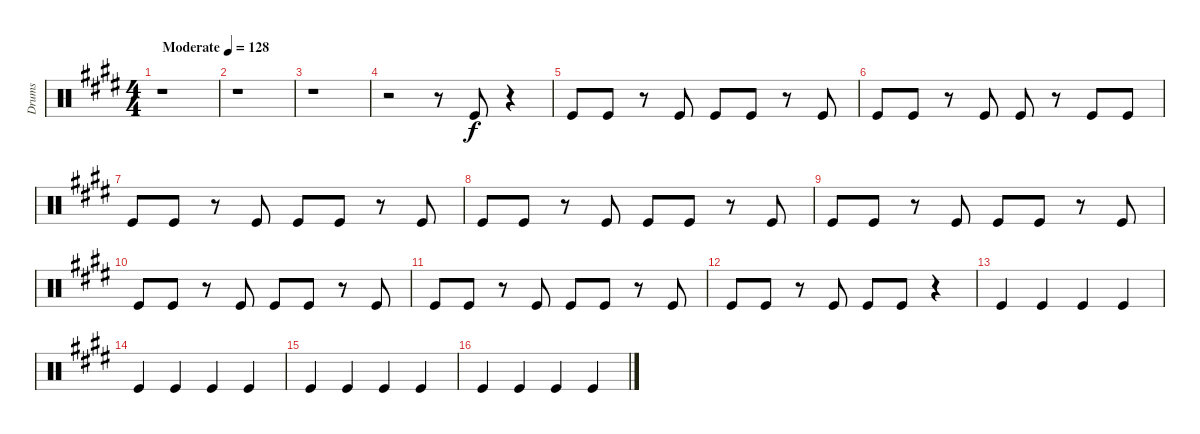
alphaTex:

\track ("Drums" "Drums") {instrument percussion}
\staff {score}
\articulation defaults
\ts (4 4)
\tempo (128 "Moderate")
\clef neutral
\ks e
r.1{dy f} |
r.1 |
r.1 |
r.2 r.8 "Kick (hit)".8 r.4 |
"Kick (hit)".8 "Kick (hit)".8 r.8 "Kick (hit)".8 "Kick (hit)".8 "Kick (hit)".8 r.8 "Kick (hit)".8 |
"Kick (hit)".8 "Kick (hit)".8 r.8 "Kick (hit)".8 "Kick (hit)".8 r.8 "Kick (hit)".8 "Kick (hit)".8 |
"Kick (hit)".8 "Kick (hit)".8 r.8 "Kick (hit)".8 "Kick (hit)".8 "Kick (hit)".8 r.8 "Kick (hit)".8 |
"Kick (hit)".8 "Kick (hit)".8 r.8 "Kick (hit)".8 "Kick (hit)".8 "Kick (hit)".8 r.8 "Kick (hit)".8 |
"Kick (hit)".8 "Kick (hit)".8 r.8 "Kick (hit)".8 "Kick (hit)".8 "Kick (hit)".8 r.8 "Kick (hit)".8 |
"Kick (hit)".8 "Kick (hit)".8 r.8 "Kick (hit)".8 "Kick (hit)".8 "Kick (hit)".8 r.8 "Kick (hit)".8 |
"Kick (hit)".8 "Kick (hit)".8 r.8 "Kick (hit)".8 "Kick (hit)".8 "Kick (hit)".8 r.8 "Kick (hit)".8 |
"Kick (hit)".8 "Kick (hit)".8 r.8 "Kick (hit)".8 "Kick (hit)".8 "Kick (hit)".8 r.4 |
"Kick (hit)".4 "Kick (hit)".4 "Kick (hit)".4 "Kick (hit)".4 |
"Kick (hit)".4 "Kick (hit)".4 "Kick (hit)".4 "Kick (hit)".4 |
"Kick (hit)".4 "Kick (hit)".4 "Kick (hit)".4 "Kick (hit)".4 |
"Kick (hit)".4 "Kick (hit)".4 "Kick (hit)".4 "Kick (hit)".4
